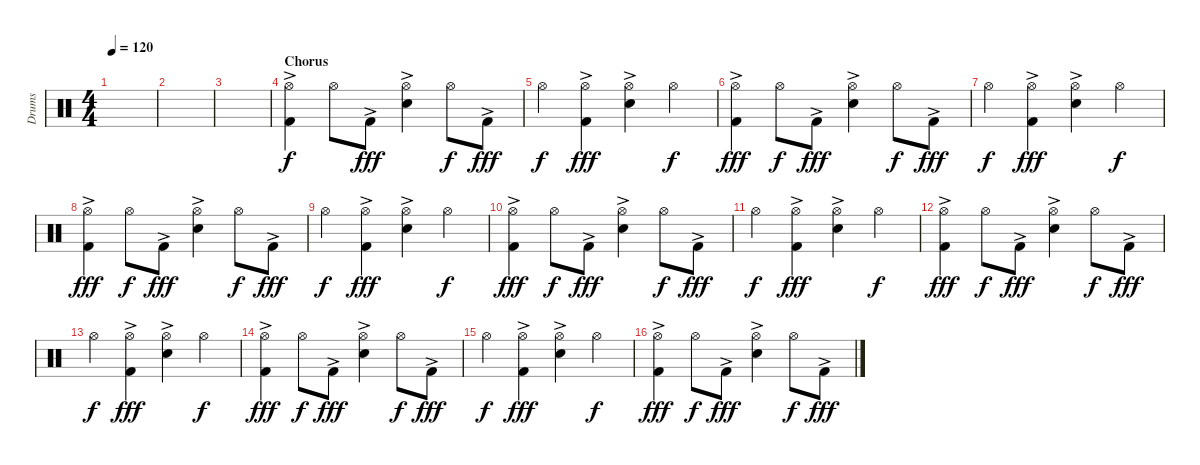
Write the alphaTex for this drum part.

\track ("Drums" "Drums") {instrument percussion}
\staff {score}
\articulation defaults
\ts (4 4)
\tempo 120
\clef neutral
\ks c
|
|
|
\section ("" "Chorus")
("Hi-Hat (open)" "Kick (hit) 2"{ac}).4 "Hi-Hat (open)".8{dy f} "Kick (hit) 2"{ac}.8{dy fff} ("Hi-Hat (open)" "Electric Snare (hit)"{ac}).4 "Hi-Hat (open)".8{dy f} "Kick (hit) 2"{ac}.8{dy fff} |
"Hi-Hat (open)".4{dy f} ("Hi-Hat (open)" "Kick (hit) 2"{ac}).4{dy fff} ("Hi-Hat (open)" "Electric Snare (hit)"{ac}).4 "Hi-Hat (open)".4{dy f} |
("Hi-Hat (open)" "Kick (hit) 2"{ac}).4{dy fff} "Hi-Hat (open)".8{dy f} "Kick (hit) 2"{ac}.8{dy fff} ("Hi-Hat (open)" "Electric Snare (hit)"{ac}).4 "Hi-Hat (open)".8{dy f} "Kick (hit) 2"{ac}.8{dy fff} |
"Hi-Hat (open)".4{dy f} ("Hi-Hat (open)" "Kick (hit) 2"{ac}).4{dy fff} ("Hi-Hat (open)" "Electric Snare (hit)"{ac}).4 "Hi-Hat (open)".4{dy f} |
("Hi-Hat (open)" "Kick (hit) 2"{ac}).4{dy fff} "Hi-Hat (open)".8{dy f} "Kick (hit) 2"{ac}.8{dy fff} ("Hi-Hat (open)" "Electric Snare (hit)"{ac}).4 "Hi-Hat (open)".8{dy f} "Kick (hit) 2"{ac}.8{dy fff} |
"Hi-Hat (open)".4{dy f} ("Hi-Hat (open)" "Kick (hit) 2"{ac}).4{dy fff} ("Hi-Hat (open)" "Electric Snare (hit)"{ac}).4 "Hi-Hat (open)".4{dy f} |
("Hi-Hat (open)" "Kick (hit) 2"{ac}).4{dy fff} "Hi-Hat (open)".8{dy f} "Kick (hit) 2"{ac}.8{dy fff} ("Hi-Hat (open)" "Electric Snare (hit)"{ac}).4 "Hi-Hat (open)".8{dy f} "Kick (hit) 2"{ac}.8{dy fff} |
"Hi-Hat (open)".4{dy f} ("Hi-Hat (open)" "Kick (hit) 2"{ac}).4{dy fff} ("Hi-Hat (open)" "Electric Snare (hit)"{ac}).4 "Hi-Hat (open)".4{dy f} |
("Hi-Hat (open)" "Kick (hit) 2"{ac}).4{dy fff} "Hi-Hat (open)".8{dy f} "Kick (hit) 2"{ac}.8{dy fff} ("Hi-Hat (open)" "Electric Snare (hit)"{ac}).4 "Hi-Hat (open)".8{dy f} "Kick (hit) 2"{ac}.8{dy fff} |
"Hi-Hat (open)".4{dy f} ("Hi-Hat (open)" "Kick (hit) 2"{ac}).4{dy fff} ("Hi-Hat (open)" "Electric Snare (hit)"{ac}).4 "Hi-Hat (open)".4{dy f} |
("Hi-Hat (open)" "Kick (hit) 2"{ac}).4{dy fff} "Hi-Hat (open)".8{dy f} "Kick (hit) 2"{ac}.8{dy fff} ("Hi-Hat (open)" "Electric Snare (hit)"{ac}).4 "Hi-Hat (open)".8{dy f} "Kick (hit) 2"{ac}.8{dy fff} |
"Hi-Hat (open)".4{dy f} ("Hi-Hat (open)" "Kick (hit) 2"{ac}).4{dy fff} ("Hi-Hat (open)" "Electric Snare (hit)"{ac}).4 "Hi-Hat (open)".4{dy f} |
("Hi-Hat (open)" "Kick (hit) 2"{ac}).4{dy fff} "Hi-Hat (open)".8{dy f} "Kick (hit) 2"{ac}.8{dy fff} ("Hi-Hat (open)" "Electric Snare (hit)"{ac}).4 "Hi-Hat (open)".8{dy f} "Kick (hit) 2"{ac}.8{dy fff}
